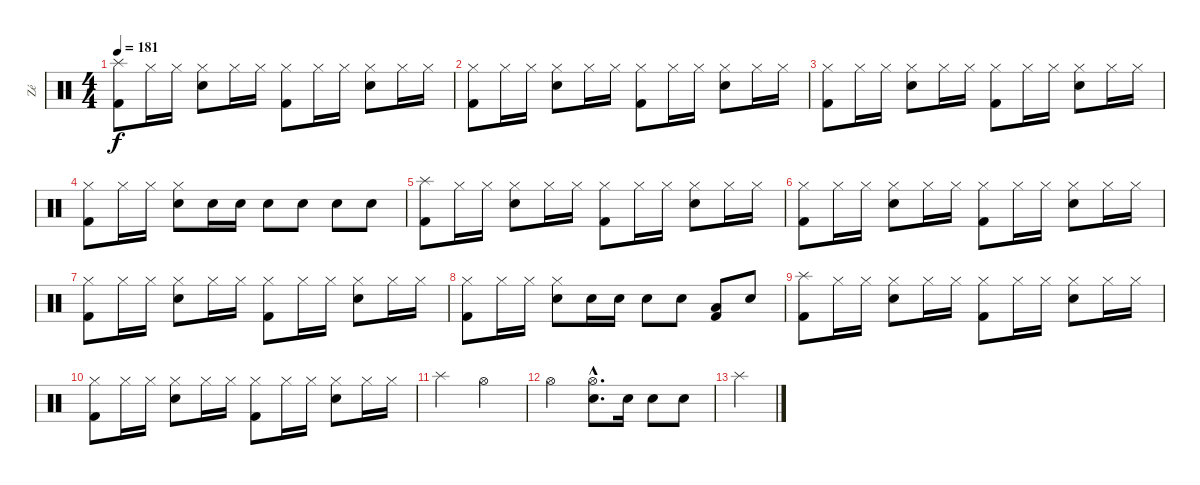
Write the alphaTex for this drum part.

\track ("Zé" "Zé") {instrument percussion}
\staff {score}
\articulation defaults
\ts (4 4)
\tempo 181
\clef neutral
\ks c
("Splash (hit)" "Kick (hit) 2").8{dy f} "Hi-Hat (closed)".16 "Hi-Hat (closed)".16 ("Hi-Hat (closed)" "Snare (hit) 2").8 "Hi-Hat (closed)".16 "Hi-Hat (closed)".16 ("Hi-Hat (closed)" "Kick (hit) 2").8 "Hi-Hat (closed)".16 "Hi-Hat (closed)".16 ("Hi-Hat (closed)" "Snare (hit) 2").8 "Hi-Hat (closed)".16 "Hi-Hat (closed)".16 |
("Hi-Hat (closed)" "Kick (hit) 2").8 "Hi-Hat (closed)".16 "Hi-Hat (closed)".16 ("Hi-Hat (closed)" "Snare (hit) 2").8 "Hi-Hat (closed)".16 "Hi-Hat (closed)".16 ("Hi-Hat (closed)" "Kick (hit) 2").8 "Hi-Hat (closed)".16 "Hi-Hat (closed)".16 ("Hi-Hat (closed)" "Snare (hit) 2").8 "Hi-Hat (closed)".16 "Hi-Hat (closed)".16 |
("Hi-Hat (closed)" "Kick (hit) 2").8 "Hi-Hat (closed)".16 "Hi-Hat (closed)".16 ("Hi-Hat (closed)" "Snare (hit) 2").8 "Hi-Hat (closed)".16 "Hi-Hat (closed)".16 ("Hi-Hat (closed)" "Kick (hit) 2").8 "Hi-Hat (closed)".16 "Hi-Hat (closed)".16 ("Hi-Hat (closed)" "Snare (hit) 2").8 "Hi-Hat (closed)".16 "Hi-Hat (closed)".16 |
("Hi-Hat (closed)" "Kick (hit) 2").8 "Hi-Hat (closed)".16 "Hi-Hat (closed)".16 ("Hi-Hat (closed)" "Snare (hit) 2").8 "Snare (hit) 2".16 "Snare (hit) 2".16 "Snare (hit) 2".8 "Snare (hit) 2".8 "Snare (hit) 2".8 "Snare (hit) 2".8 |
("Splash (hit)" "Kick (hit) 2").8 "Hi-Hat (closed)".16 "Hi-Hat (closed)".16 ("Hi-Hat (closed)" "Snare (hit) 2").8 "Hi-Hat (closed)".16 "Hi-Hat (closed)".16 ("Hi-Hat (closed)" "Kick (hit) 2").8 "Hi-Hat (closed)".16 "Hi-Hat (closed)".16 ("Hi-Hat (closed)" "Snare (hit) 2").8 "Hi-Hat (closed)".16 "Hi-Hat (closed)".16 |
("Hi-Hat (closed)" "Kick (hit) 2").8 "Hi-Hat (closed)".16 "Hi-Hat (closed)".16 ("Hi-Hat (closed)" "Snare (hit) 2").8 "Hi-Hat (closed)".16 "Hi-Hat (closed)".16 ("Hi-Hat (closed)" "Kick (hit) 2").8 "Hi-Hat (closed)".16 "Hi-Hat (closed)".16 ("Hi-Hat (closed)" "Snare (hit) 2").8 "Hi-Hat (closed)".16 "Hi-Hat (closed)".16 |
("Hi-Hat (closed)" "Kick (hit) 2").8 "Hi-Hat (closed)".16 "Hi-Hat (closed)".16 ("Hi-Hat (closed)" "Snare (hit) 2").8 "Hi-Hat (closed)".16 "Hi-Hat (closed)".16 ("Hi-Hat (closed)" "Kick (hit) 2").8 "Hi-Hat (closed)".16 "Hi-Hat (closed)".16 ("Hi-Hat (closed)" "Snare (hit) 2").8 "Hi-Hat (closed)".16 "Hi-Hat (closed)".16 |
("Hi-Hat (closed)" "Kick (hit) 2").8 "Hi-Hat (closed)".16 "Hi-Hat (closed)".16 ("Hi-Hat (closed)" "Snare (hit) 2").8 "Snare (hit) 2".16 "Snare (hit) 2".16 "Snare (hit) 2".8 "Snare (hit) 2".8 ("Low Tom (hit)" "Kick (hit) 2").8 "Snare (hit) 2".8 |
("Splash (hit)" "Kick (hit) 2").8 "Hi-Hat (closed)".16 "Hi-Hat (closed)".16 ("Hi-Hat (closed)" "Snare (hit) 2").8 "Hi-Hat (closed)".16 "Hi-Hat (closed)".16 ("Hi-Hat (closed)" "Kick (hit) 2").8 "Hi-Hat (closed)".16 "Hi-Hat (closed)".16 ("Hi-Hat (closed)" "Snare (hit) 2").8 "Hi-Hat (closed)".16 "Hi-Hat (closed)".16 |
("Hi-Hat (closed)" "Kick (hit) 2").8 "Hi-Hat (closed)".16 "Hi-Hat (closed)".16 ("Hi-Hat (closed)" "Snare (hit) 2").8 "Hi-Hat (closed)".16 "Hi-Hat (closed)".16 ("Hi-Hat (closed)" "Kick (hit) 2").8 "Hi-Hat (closed)".16 "Hi-Hat (closed)".16 ("Hi-Hat (closed)" "Snare (hit) 2").8 "Hi-Hat (closed)".16 "Hi-Hat (closed)".16 |
"Splash (hit)".2 "Hi-Hat (open)".2 |
"Hi-Hat (open)".2 ("Hi-Hat (open)"{hac} "Snare (hit) 2"{hac}).8{d} "Snare (hit) 2".16 "Snare (hit) 2".8 "Snare (hit) 2".8 |
"Splash (hit)".4
